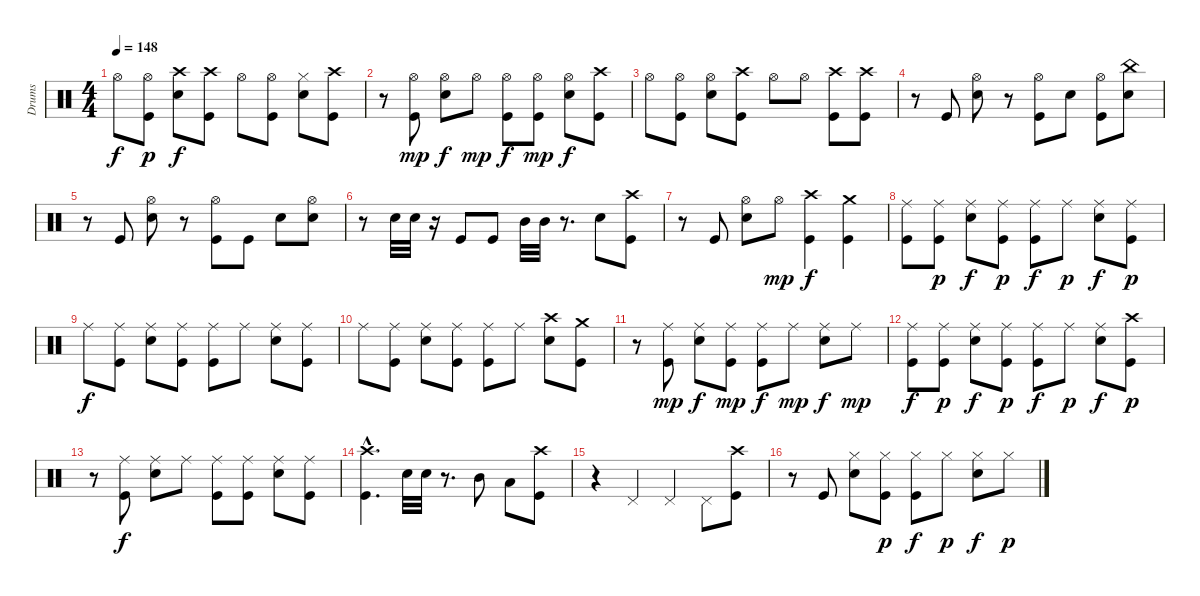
\track ("Drums" "Drums") {instrument percussion}
\staff {score}
\articulation defaults
\ts (4 4)
\tempo 148
\clef neutral
\ks c "Hi-Hat (open)".8{dy f}
("Hi-Hat (open)" "Kick (hit)").8{dy p} ("Crash high (hit)" "Snare (hit) 2").8{dy f} ("Crash high (hit)" "Kick (hit)").8 "Hi-Hat (open)".8 ("Hi-Hat (open)" "Kick (hit)").8 ("Hi-Hat (closed)" "Snare (hit) 2").8 ("Crash high (hit)" "Kick (hit)").8 |
r.8 ("Hi-Hat (open)" "Kick (hit)").8{dy mp} ("Hi-Hat (open)" "Snare (hit) 2").8{dy f} "Hi-Hat (open)".8{dy mp} ("Hi-Hat (open)" "Kick (hit)").8{dy f} ("Hi-Hat (open)" "Kick (hit)").8{dy mp} ("Hi-Hat (open)" "Snare (hit) 2").8{dy f} ("Crash high (hit)" "Kick (hit)").8 |
"Hi-Hat (open)".8 ("Hi-Hat (open)" "Kick (hit)").8 ("Hi-Hat (open)" "Snare (hit) 2").8 ("Crash high (hit)" "Kick (hit)").8 "Hi-Hat (open)".8 "Hi-Hat (open)".8 ("Crash high (hit)" "Kick (hit)").8 ("Crash high (hit)" "Kick (hit)").8 |
r.8 "Kick (hit)".8 ("Hi-Hat (open)" "Snare (hit) 2").8 r.8 ("Hi-Hat (open)" "Kick (hit)").8 "Snare (hit) 2".8 ("Hi-Hat (open)" "Kick (hit)").8 ("China (hit)" "Snare (hit) 2").8 |
r.8 "Kick (hit)".8 ("Hi-Hat (open)" "Snare (hit) 2").8 r.8 ("Hi-Hat (open)" "Kick (hit)").8 "Kick (hit)".8 "Snare (hit) 2".8 ("Hi-Hat (open)" "Snare (hit) 2").8 |
r.8 "Snare (hit) 2".32 "Snare (hit) 2".32 r.16 "Kick (hit)".8 "Kick (hit)".8 "Mid Tom (hit)".32 "Mid Tom (hit)".32 r.8{d} "Snare (hit) 2".8 ("Crash high (hit)" "Kick (hit)").8 |
r.8 "Kick (hit)".8 ("Hi-Hat (open)" "Snare (hit) 2").8 "Hi-Hat (open)".8{dy mp} ("Crash high (hit)" "Kick (hit)").4{dy f} ("Crash medium (hit)" "Kick (hit)").4 |
("Ride (middle)" "Kick (hit)").8 ("Ride (middle)" "Kick (hit)").8{dy p} ("Ride (middle)" "Snare (hit) 2").8{dy f} ("Ride (middle)" "Kick (hit)").8{dy p} ("Ride (middle)" "Kick (hit)").8{dy f} "Ride (middle)".8{dy p} ("Ride (middle)" "Snare (hit) 2").8{dy f} ("Ride (middle)" "Kick (hit)").8{dy p} |
"Ride (middle)".8{dy f} ("Ride (middle)" "Kick (hit)").8 ("Ride (middle)" "Snare (hit) 2").8 ("Ride (middle)" "Kick (hit)").8 ("Ride (middle)" "Kick (hit)").8 "Ride (middle)".8 ("Ride (middle)" "Snare (hit) 2").8 ("Ride (middle)" "Kick (hit)").8 |
"Ride (middle)".8 ("Ride (middle)" "Kick (hit)").8 ("Ride (middle)" "Snare (hit) 2").8 ("Ride (middle)" "Kick (hit)").8 ("Ride (middle)" "Kick (hit)").8 "Ride (middle)".8 ("Crash high (hit)" "Snare (hit) 2").8 ("Crash medium (hit)" "Kick (hit)").8 |
r.8 ("Ride (middle)" "Kick (hit)").8{dy mp} ("Ride (middle)" "Snare (hit) 2").8{dy f} ("Ride (middle)" "Kick (hit)").8{dy mp} ("Ride (middle)" "Kick (hit)").8{dy f} "Ride (middle)".8{dy mp} ("Ride (middle)" "Snare (hit) 2").8{dy f} "Ride (middle)".8{dy mp} |
("Ride (middle)" "Kick (hit)").8{dy f} ("Ride (middle)" "Kick (hit)").8{dy p} ("Ride (middle)" "Snare (hit) 2").8{dy f} ("Ride (middle)" "Kick (hit)").8{dy p} ("Ride (middle)" "Kick (hit)").8{dy f} "Ride (middle)".8{dy p} ("Ride (middle)" "Snare (hit) 2").8{dy f} ("Crash high (hit)" "Kick (hit)").8{dy p} |
r.8 ("Ride (middle)" "Kick (hit)").8{dy f} ("Ride (middle)" "Snare (hit) 2").8 "Ride (middle)".8 ("Ride (middle)" "Kick (hit)").8 ("Ride (middle)" "Kick (hit)").8 ("Ride (middle)" "Snare (hit) 2").8 ("Ride (middle)" "Kick (hit)").8 |
("Crash high (hit)"{hac} "Kick (hit)"{hac}).4{d} "Snare (hit) 2".32 "Snare (hit) 2".32 r.8{d} "Mid Tom (hit)".8 "Low Tom (hit)".8 ("Crash high (hit)" "Kick (hit)").8 |
r.4 "Pedal Hi-Hat (hit)".4 "Pedal Hi-Hat (hit)".4 "Pedal Hi-Hat (hit)".8 ("Crash high (hit)" "Kick (hit)").8 |
r.8 "Kick (hit)".8 ("Hi-Hat (closed)" "Snare (hit) 2").8 ("Hi-Hat (closed)" "Kick (hit)").8{dy p} ("Hi-Hat (closed)" "Kick (hit)").8{dy f} "Hi-Hat (closed)".8{dy p} ("Hi-Hat (closed)" "Snare (hit) 2").8{dy f} "Hi-Hat (closed)".8{dy p}
